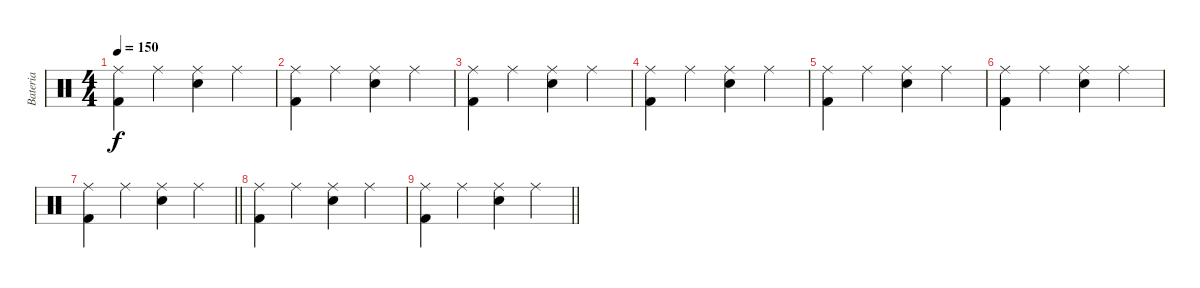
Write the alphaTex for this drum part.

\track ("Bateria" "Bateria") {instrument percussion}
\staff {score}
\articulation defaults
\ts (4 4)
\tempo 150
\clef neutral
\ks c
("Ride (middle)" "Kick (hit) 2").4{dy f} "Ride (middle)".4 ("Ride (middle)" "Snare (hit) 2").4 "Ride (middle)".4 |
("Ride (middle)" "Kick (hit) 2").4 "Ride (middle)".4 ("Ride (middle)" "Snare (hit) 2").4 "Ride (middle)".4 |
("Ride (middle)" "Kick (hit) 2").4 "Ride (middle)".4 ("Ride (middle)" "Snare (hit) 2").4 "Ride (middle)".4 |
("Ride (middle)" "Kick (hit) 2").4 "Ride (middle)".4 ("Ride (middle)" "Snare (hit) 2").4 "Ride (middle)".4 |
("Ride (middle)" "Kick (hit) 2").4 "Ride (middle)".4 ("Ride (middle)" "Snare (hit) 2").4 "Ride (middle)".4 |
("Ride (middle)" "Kick (hit) 2").4 "Ride (middle)".4 ("Ride (middle)" "Snare (hit) 2").4 "Ride (middle)".4 |
\barLineRight lightlight
("Ride (middle)" "Kick (hit) 2").4 "Ride (middle)".4 ("Ride (middle)" "Snare (hit) 2").4 "Ride (middle)".4 |
("Ride (middle)" "Kick (hit) 2").4 "Ride (middle)".4 ("Ride (middle)" "Snare (hit) 2").4 "Ride (middle)".4 |
\barLineRight lightlight
("Ride (middle)" "Kick (hit) 2").4 "Ride (middle)".4 ("Ride (middle)" "Snare (hit) 2").4 "Ride (middle)".4
